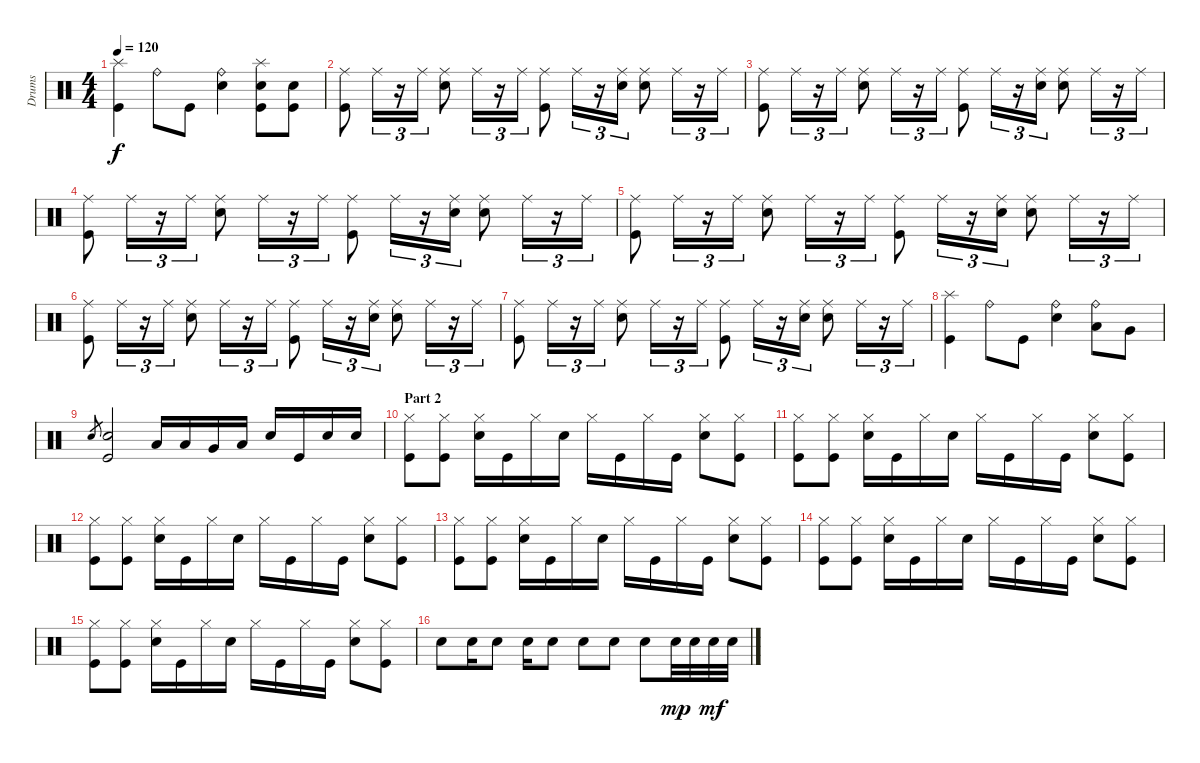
\track ("Drums" "Drums") {instrument percussion}
\staff {score}
\articulation defaults
\ts (4 4)
\tempo 120
\clef neutral
\ks c
("Splash (hit)" "Kick (hit)").4{dy f} "Ride (bell)".8 "Kick (hit)".8 ("Ride (bell)" "Snare (hit) 2").4 ("Splash (hit)" "Snare (hit) 2" "Kick (hit)").8 ("Snare (hit) 2" "Kick (hit)").8 |
("Ride (middle)" "Kick (hit)").8 "Ride (middle)".16{tu (3 2)} r.16{tu (3 2)} "Ride (middle)".16{tu (3 2)} ("Ride (middle)" "Snare (hit) 2").8 "Ride (middle)".16{tu (3 2)} r.16{tu (3 2)} "Ride (middle)".16{tu (3 2)} ("Ride (middle)" "Kick (hit)").8 "Ride (middle)".16{tu (3 2)} r.16{tu (3 2)} ("Ride (middle)" "Snare (hit) 2").16{tu (3 2)} ("Ride (middle)" "Snare (hit) 2").8 "Ride (middle)".16{tu (3 2)} r.16{tu (3 2)} "Ride (middle)".16{tu (3 2)} |
("Ride (middle)" "Kick (hit)").8 "Ride (middle)".16{tu (3 2)} r.16{tu (3 2)} "Ride (middle)".16{tu (3 2)} ("Ride (middle)" "Snare (hit) 2").8 "Ride (middle)".16{tu (3 2)} r.16{tu (3 2)} "Ride (middle)".16{tu (3 2)} ("Ride (middle)" "Kick (hit)").8 "Ride (middle)".16{tu (3 2)} r.16{tu (3 2)} ("Ride (middle)" "Snare (hit) 2").16{tu (3 2)} ("Ride (middle)" "Snare (hit) 2").8 "Ride (middle)".16{tu (3 2)} r.16{tu (3 2)} "Ride (middle)".16{tu (3 2)} |
("Ride (middle)" "Kick (hit)").8 "Ride (middle)".16{tu (3 2)} r.16{tu (3 2)} "Ride (middle)".16{tu (3 2)} ("Ride (middle)" "Snare (hit) 2").8 "Ride (middle)".16{tu (3 2)} r.16{tu (3 2)} "Ride (middle)".16{tu (3 2)} ("Ride (middle)" "Kick (hit)").8 "Ride (middle)".16{tu (3 2)} r.16{tu (3 2)} ("Ride (middle)" "Snare (hit) 2").16{tu (3 2)} ("Ride (middle)" "Snare (hit) 2").8 "Ride (middle)".16{tu (3 2)} r.16{tu (3 2)} "Ride (middle)".16{tu (3 2)} |
("Ride (middle)" "Kick (hit)").8 "Ride (middle)".16{tu (3 2)} r.16{tu (3 2)} "Ride (middle)".16{tu (3 2)} ("Ride (middle)" "Snare (hit) 2").8 "Ride (middle)".16{tu (3 2)} r.16{tu (3 2)} "Ride (middle)".16{tu (3 2)} ("Ride (middle)" "Kick (hit)").8 "Ride (middle)".16{tu (3 2)} r.16{tu (3 2)} ("Ride (middle)" "Snare (hit) 2").16{tu (3 2)} ("Ride (middle)" "Snare (hit) 2").8 "Ride (middle)".16{tu (3 2)} r.16{tu (3 2)} "Ride (middle)".16{tu (3 2)} |
("Ride (middle)" "Kick (hit)").8 "Ride (middle)".16{tu (3 2)} r.16{tu (3 2)} "Ride (middle)".16{tu (3 2)} ("Ride (middle)" "Snare (hit) 2").8 "Ride (middle)".16{tu (3 2)} r.16{tu (3 2)} "Ride (middle)".16{tu (3 2)} ("Ride (middle)" "Kick (hit)").8 "Ride (middle)".16{tu (3 2)} r.16{tu (3 2)} ("Ride (middle)" "Snare (hit) 2").16{tu (3 2)} ("Ride (middle)" "Snare (hit) 2").8 "Ride (middle)".16{tu (3 2)} r.16{tu (3 2)} "Ride (middle)".16{tu (3 2)} |
("Ride (middle)" "Kick (hit)").8 "Ride (middle)".16{tu (3 2)} r.16{tu (3 2)} "Ride (middle)".16{tu (3 2)} ("Ride (middle)" "Snare (hit) 2").8 "Ride (middle)".16{tu (3 2)} r.16{tu (3 2)} "Ride (middle)".16{tu (3 2)} ("Ride (middle)" "Kick (hit)").8 "Ride (middle)".16{tu (3 2)} r.16{tu (3 2)} ("Ride (middle)" "Snare (hit) 2").16{tu (3 2)} ("Ride (middle)" "Snare (hit) 2").8 "Ride (middle)".16{tu (3 2)} r.16{tu (3 2)} "Ride (middle)".16{tu (3 2)} |
("Splash (hit)" "Kick (hit)").4 "Ride (bell)".8 "Kick (hit)".8 ("Ride (bell)" "Snare (hit) 2").4 ("Ride (bell)" "Low Tom (hit)").8 "Very Low Tom (hit)".8 |
"Snare (hit) 2".8{gr} ("Snare (hit) 2" "Kick (hit)").2 "Low Tom (hit)".16 "Low Tom (hit)".16 "Very Low Tom (hit)".16 "Low Floor Tom (hit)".16 "Snare (hit) 2".16 "Kick (hit)".16 "Snare (hit) 2".16 "Snare (hit) 2".16 |
\section ("" "Part 2")
("Hi-Hat (closed)" "Kick (hit)").8 ("Hi-Hat (closed)" "Kick (hit)").8 ("Hi-Hat (closed)" "Snare (hit) 2").16 "Kick (hit)".16 "Hi-Hat (closed)".16 "Snare (hit) 2".16 "Hi-Hat (closed)".16 "Kick (hit)".16 "Hi-Hat (closed)".16 "Kick (hit)".16 ("Hi-Hat (closed)" "Snare (hit) 2").8 ("Hi-Hat (closed)" "Kick (hit)").8 |
("Hi-Hat (closed)" "Kick (hit)").8 ("Hi-Hat (closed)" "Kick (hit)").8 ("Hi-Hat (closed)" "Snare (hit) 2").16 "Kick (hit)".16 "Hi-Hat (closed)".16 "Snare (hit) 2".16 "Hi-Hat (closed)".16 "Kick (hit)".16 "Hi-Hat (closed)".16 "Kick (hit)".16 ("Hi-Hat (closed)" "Snare (hit) 2").8 ("Hi-Hat (closed)" "Kick (hit)").8 |
("Hi-Hat (closed)" "Kick (hit)").8 ("Hi-Hat (closed)" "Kick (hit)").8 ("Hi-Hat (closed)" "Snare (hit) 2").16 "Kick (hit)".16 "Hi-Hat (closed)".16 "Snare (hit) 2".16 "Hi-Hat (closed)".16 "Kick (hit)".16 "Hi-Hat (closed)".16 "Kick (hit)".16 ("Hi-Hat (closed)" "Snare (hit) 2").8 ("Hi-Hat (closed)" "Kick (hit)").8 |
("Hi-Hat (closed)" "Kick (hit)").8 ("Hi-Hat (closed)" "Kick (hit)").8 ("Hi-Hat (closed)" "Snare (hit) 2").16 "Kick (hit)".16 "Hi-Hat (closed)".16 "Snare (hit) 2".16 "Hi-Hat (closed)".16 "Kick (hit)".16 "Hi-Hat (closed)".16 "Kick (hit)".16 ("Hi-Hat (closed)" "Snare (hit) 2").8 ("Hi-Hat (closed)" "Kick (hit)").8 |
("Hi-Hat (closed)" "Kick (hit)").8 ("Hi-Hat (closed)" "Kick (hit)").8 ("Hi-Hat (closed)" "Snare (hit) 2").16 "Kick (hit)".16 "Hi-Hat (closed)".16 "Snare (hit) 2".16 "Hi-Hat (closed)".16 "Kick (hit)".16 "Hi-Hat (closed)".16 "Kick (hit)".16 ("Hi-Hat (closed)" "Snare (hit) 2").8 ("Hi-Hat (closed)" "Kick (hit)").8 |
("Hi-Hat (closed)" "Kick (hit)").8 ("Hi-Hat (closed)" "Kick (hit)").8 ("Hi-Hat (closed)" "Snare (hit) 2").16 "Kick (hit)".16 "Hi-Hat (closed)".16 "Snare (hit) 2".16 "Hi-Hat (closed)".16 "Kick (hit)".16 "Hi-Hat (closed)".16 "Kick (hit)".16 ("Hi-Hat (closed)" "Snare (hit) 2").8 ("Hi-Hat (closed)" "Kick (hit)").8 |
"Snare (hit) 2".8 "Snare (hit) 2".16 "Snare (hit) 2".8 "Snare (hit) 2".16 "Snare (hit) 2".8 "Snare (hit) 2".8 "Snare (hit) 2".8 "Snare (hit) 2".8 "Snare (hit) 2".32{dy mp} "Snare (hit) 2".32 "Snare (hit) 2".32{dy mf} "Snare (hit) 2".32
